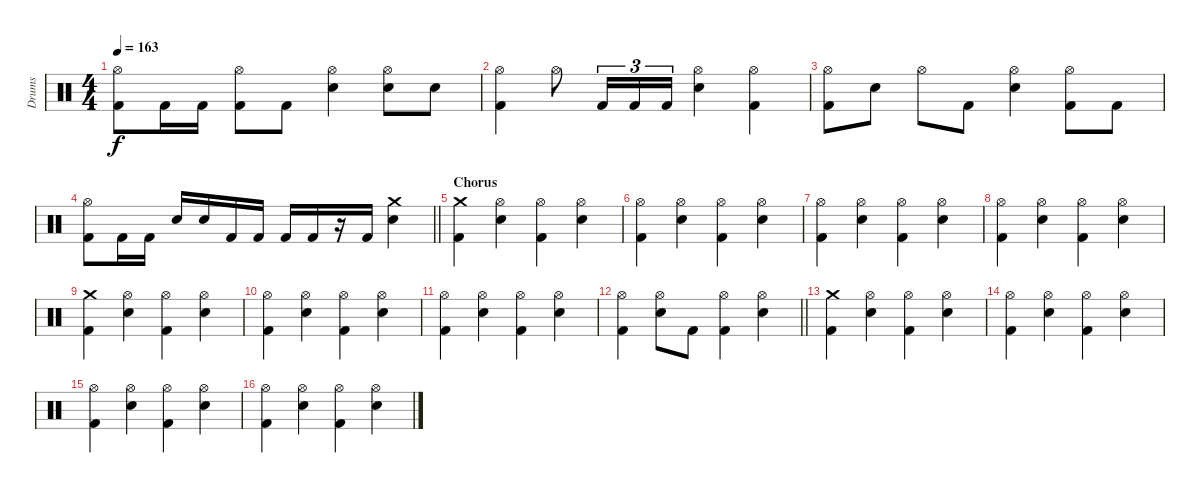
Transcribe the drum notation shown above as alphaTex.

\track ("Drums" "Drums") {instrument percussion}
\staff {score}
\articulation defaults
\ts (4 4)
\tempo 163
\clef neutral
\ks c
("Hi-Hat (open)" "Kick (hit) 2").8{dy f} "Kick (hit) 2".16 "Kick (hit) 2".16 ("Hi-Hat (open)" "Kick (hit) 2").8 "Kick (hit) 2".8 ("Hi-Hat (open)" "Electric Snare (hit)").4 ("Hi-Hat (open)" "Electric Snare (hit)").8 "Electric Snare (hit)".8 |
("Hi-Hat (open)" "Kick (hit) 2").4 "Hi-Hat (open)".8 "Kick (hit) 2".16{tu (3 2)} "Kick (hit) 2".16{tu (3 2)} "Kick (hit) 2".16{tu (3 2)} ("Hi-Hat (open)" "Electric Snare (hit)").4 ("Hi-Hat (open)" "Kick (hit) 2").4 |
("Hi-Hat (open)" "Kick (hit) 2").8 "Electric Snare (hit)".8 "Hi-Hat (open)".8 "Kick (hit) 2".8 ("Hi-Hat (open)" "Electric Snare (hit)").4 ("Hi-Hat (open)" "Kick (hit) 2").8 "Kick (hit) 2".8 |
\barLineRight lightlight
("Hi-Hat (open)" "Kick (hit) 2").8 "Kick (hit) 2".16 "Kick (hit) 2".16 "Electric Snare (hit)".16 "Electric Snare (hit)".16 "Kick (hit) 2".16 "Kick (hit) 2".16 "Kick (hit) 2".16 "Kick (hit) 2".16 r.16 "Kick (hit) 2".16 ("Crash medium (hit)" "Electric Snare (hit)").4 |
\section ("" "Chorus ")
("Crash medium (hit)" "Kick (hit) 2").4 ("Hi-Hat (open)" "Electric Snare (hit)").4 ("Hi-Hat (open)" "Kick (hit) 2").4 ("Hi-Hat (open)" "Electric Snare (hit)").4 |
("Hi-Hat (open)" "Kick (hit) 2").4 ("Hi-Hat (open)" "Electric Snare (hit)").4 ("Hi-Hat (open)" "Kick (hit) 2").4 ("Hi-Hat (open)" "Electric Snare (hit)").4 |
("Hi-Hat (open)" "Kick (hit) 2").4 ("Hi-Hat (open)" "Electric Snare (hit)").4 ("Hi-Hat (open)" "Kick (hit) 2").4 ("Hi-Hat (open)" "Electric Snare (hit)").4 |
("Hi-Hat (open)" "Kick (hit) 2").4 ("Hi-Hat (open)" "Electric Snare (hit)").4 ("Hi-Hat (open)" "Kick (hit) 2").4 ("Hi-Hat (open)" "Electric Snare (hit)").4 |
("Crash medium (hit)" "Kick (hit) 2").4 ("Hi-Hat (open)" "Electric Snare (hit)").4 ("Hi-Hat (open)" "Kick (hit) 2").4 ("Hi-Hat (open)" "Electric Snare (hit)").4 |
("Hi-Hat (open)" "Kick (hit) 2").4 ("Hi-Hat (open)" "Electric Snare (hit)").4 ("Hi-Hat (open)" "Kick (hit) 2").4 ("Hi-Hat (open)" "Electric Snare (hit)").4 |
("Hi-Hat (open)" "Kick (hit) 2").4 ("Hi-Hat (open)" "Electric Snare (hit)").4 ("Hi-Hat (open)" "Kick (hit) 2").4 ("Hi-Hat (open)" "Electric Snare (hit)").4 |
\barLineRight lightlight
("Hi-Hat (open)" "Kick (hit) 2").4 ("Hi-Hat (open)" "Electric Snare (hit)").8 "Kick (hit) 2".8 ("Hi-Hat (open)" "Kick (hit) 2").4 ("Hi-Hat (open)" "Electric Snare (hit)").4 |
("Crash medium (hit)" "Kick (hit) 2").4 ("Hi-Hat (open)" "Electric Snare (hit)").4 ("Hi-Hat (open)" "Kick (hit) 2").4 ("Hi-Hat (open)" "Electric Snare (hit)").4 |
("Hi-Hat (open)" "Kick (hit) 2").4 ("Hi-Hat (open)" "Electric Snare (hit)").4 ("Hi-Hat (open)" "Kick (hit) 2").4 ("Hi-Hat (open)" "Electric Snare (hit)").4 |
("Hi-Hat (open)" "Kick (hit) 2").4 ("Hi-Hat (open)" "Electric Snare (hit)").4 ("Hi-Hat (open)" "Kick (hit) 2").4 ("Hi-Hat (open)" "Electric Snare (hit)").4 |
("Hi-Hat (open)" "Kick (hit) 2").4 ("Hi-Hat (open)" "Electric Snare (hit)").4 ("Hi-Hat (open)" "Kick (hit) 2").4 ("Hi-Hat (open)" "Electric Snare (hit)").4
